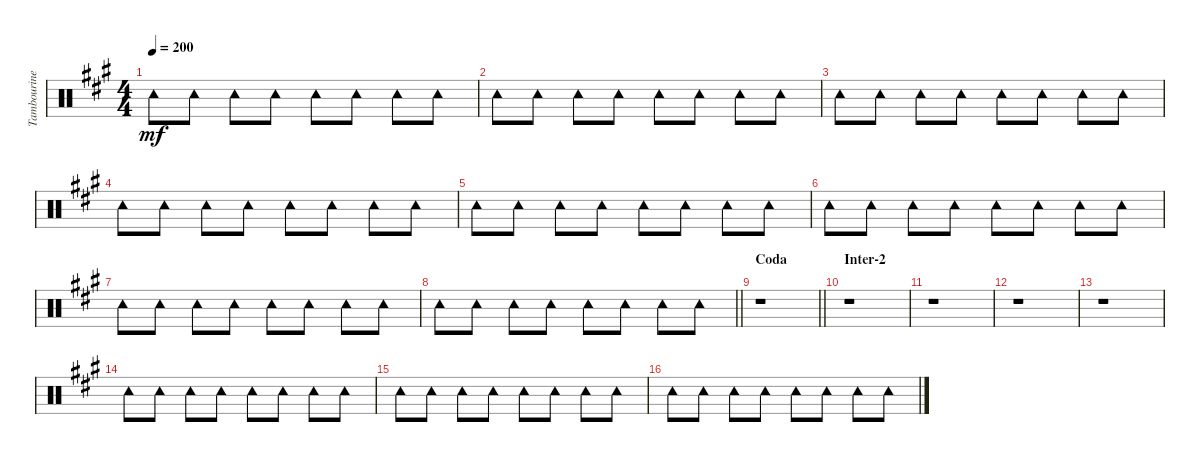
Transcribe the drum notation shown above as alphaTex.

\track ("Tambourine" "Tambourine") {instrument percussion}
\staff {score}
\articulation defaults
\ts (4 4)
\tempo 200
\clef neutral
\ks a "Tambourine (hit)".8{dy mf} "Tambourine (hit)".8 "Tambourine (hit)".8 "Tambourine (hit)".8 "Tambourine (hit)".8 "Tambourine (hit)".8 "Tambourine (hit)".8 "Tambourine (hit)".8
|
"Tambourine (hit)".8 "Tambourine (hit)".8 "Tambourine (hit)".8 "Tambourine (hit)".8 "Tambourine (hit)".8 "Tambourine (hit)".8 "Tambourine (hit)".8 "Tambourine (hit)".8 |
"Tambourine (hit)".8 "Tambourine (hit)".8 "Tambourine (hit)".8 "Tambourine (hit)".8 "Tambourine (hit)".8 "Tambourine (hit)".8 "Tambourine (hit)".8 "Tambourine (hit)".8 |
"Tambourine (hit)".8 "Tambourine (hit)".8 "Tambourine (hit)".8 "Tambourine (hit)".8 "Tambourine (hit)".8 "Tambourine (hit)".8 "Tambourine (hit)".8 "Tambourine (hit)".8 |
"Tambourine (hit)".8 "Tambourine (hit)".8 "Tambourine (hit)".8 "Tambourine (hit)".8 "Tambourine (hit)".8 "Tambourine (hit)".8 "Tambourine (hit)".8 "Tambourine (hit)".8 |
"Tambourine (hit)".8 "Tambourine (hit)".8 "Tambourine (hit)".8 "Tambourine (hit)".8 "Tambourine (hit)".8 "Tambourine (hit)".8 "Tambourine (hit)".8 "Tambourine (hit)".8 |
"Tambourine (hit)".8 "Tambourine (hit)".8 "Tambourine (hit)".8 "Tambourine (hit)".8 "Tambourine (hit)".8 "Tambourine (hit)".8 "Tambourine (hit)".8 "Tambourine (hit)".8 |
\barLineRight lightlight "Tambourine (hit)".8 "Tambourine (hit)".8 "Tambourine (hit)".8 "Tambourine (hit)".8 "Tambourine (hit)".8 "Tambourine (hit)".8 "Tambourine (hit)".8 "Tambourine (hit)".8
|
\section ("" "Coda")
\barLineRight lightlight
r.1 |
\section ("" "Inter-2")
r.1 |
r.1 |
r.1 |
r.1 |
"Tambourine (hit)".8 "Tambourine (hit)".8 "Tambourine (hit)".8 "Tambourine (hit)".8 "Tambourine (hit)".8 "Tambourine (hit)".8 "Tambourine (hit)".8 "Tambourine (hit)".8 |
"Tambourine (hit)".8 "Tambourine (hit)".8 "Tambourine (hit)".8 "Tambourine (hit)".8 "Tambourine (hit)".8 "Tambourine (hit)".8 "Tambourine (hit)".8 "Tambourine (hit)".8 |
"Tambourine (hit)".8 "Tambourine (hit)".8 "Tambourine (hit)".8 "Tambourine (hit)".8 "Tambourine (hit)".8 "Tambourine (hit)".8 "Tambourine (hit)".8 "Tambourine (hit)".8
